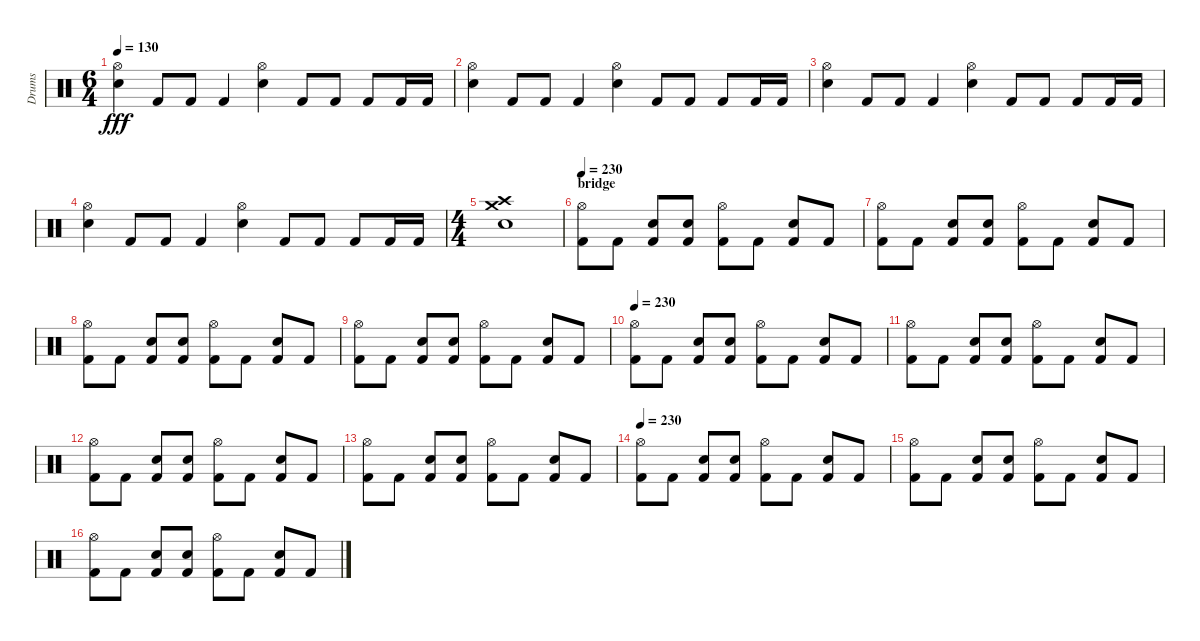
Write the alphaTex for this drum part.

\track ("Drums" "Drums") {instrument percussion}
\staff {score}
\articulation defaults
\ts (6 4)
\tempo 130
\clef neutral
\ks c
("Hi-Hat (open)" "Electric Snare (hit)").4{dy fff} "Kick (hit) 2".8 "Kick (hit) 2".8 "Kick (hit) 2".4 ("Electric Snare (hit)" "Hi-Hat (open)").4 "Kick (hit) 2".8 "Kick (hit) 2".8 "Kick (hit) 2".8 "Kick (hit) 2".16 "Kick (hit) 2".16 |
("Hi-Hat (open)" "Electric Snare (hit)").4 "Kick (hit) 2".8 "Kick (hit) 2".8 "Kick (hit) 2".4 ("Electric Snare (hit)" "Hi-Hat (open)").4 "Kick (hit) 2".8 "Kick (hit) 2".8 "Kick (hit) 2".8 "Kick (hit) 2".16 "Kick (hit) 2".16 |
("Hi-Hat (open)" "Electric Snare (hit)").4 "Kick (hit) 2".8 "Kick (hit) 2".8 "Kick (hit) 2".4 ("Electric Snare (hit)" "Hi-Hat (open)").4 "Kick (hit) 2".8 "Kick (hit) 2".8 "Kick (hit) 2".8 "Kick (hit) 2".16 "Kick (hit) 2".16 |
("Hi-Hat (open)" "Electric Snare (hit)").4 "Kick (hit) 2".8 "Kick (hit) 2".8 "Kick (hit) 2".4 ("Electric Snare (hit)" "Hi-Hat (open)").4 "Kick (hit) 2".8 "Kick (hit) 2".8 "Kick (hit) 2".8 "Kick (hit) 2".16 "Kick (hit) 2".16 |
\ts (4 4)
("Electric Snare (hit)" "Crash medium (hit)" "Crash high (hit)").1 |
\section ("" "bridge")
\tempo 230
("Hi-Hat (open)" "Kick (hit) 2").8 "Kick (hit) 2".8 ("Snare (hit) 2" "Kick (hit) 2").8 ("Snare (hit) 2" "Kick (hit) 2").8 ("Hi-Hat (open)" "Kick (hit) 2").8 "Kick (hit) 2".8 ("Snare (hit) 2" "Kick (hit) 2").8 "Kick (hit) 2".8 |
("Hi-Hat (open)" "Kick (hit) 2").8 "Kick (hit) 2".8 ("Snare (hit) 2" "Kick (hit) 2").8 ("Snare (hit) 2" "Kick (hit) 2").8 ("Hi-Hat (open)" "Kick (hit) 2").8 "Kick (hit) 2".8 ("Snare (hit) 2" "Kick (hit) 2").8 "Kick (hit) 2".8 |
("Hi-Hat (open)" "Kick (hit) 2").8 "Kick (hit) 2".8 ("Snare (hit) 2" "Kick (hit) 2").8 ("Snare (hit) 2" "Kick (hit) 2").8 ("Hi-Hat (open)" "Kick (hit) 2").8 "Kick (hit) 2".8 ("Snare (hit) 2" "Kick (hit) 2").8 "Kick (hit) 2".8 |
("Hi-Hat (open)" "Kick (hit) 2").8 "Kick (hit) 2".8 ("Snare (hit) 2" "Kick (hit) 2").8 ("Snare (hit) 2" "Kick (hit) 2").8 ("Hi-Hat (open)" "Kick (hit) 2").8 "Kick (hit) 2".8 ("Snare (hit) 2" "Kick (hit) 2").8 "Kick (hit) 2".8 |
\tempo 230
("Hi-Hat (open)" "Kick (hit) 2").8 "Kick (hit) 2".8 ("Snare (hit) 2" "Kick (hit) 2").8 ("Snare (hit) 2" "Kick (hit) 2").8 ("Hi-Hat (open)" "Kick (hit) 2").8 "Kick (hit) 2".8 ("Snare (hit) 2" "Kick (hit) 2").8 "Kick (hit) 2".8 |
("Hi-Hat (open)" "Kick (hit) 2").8 "Kick (hit) 2".8 ("Snare (hit) 2" "Kick (hit) 2").8 ("Snare (hit) 2" "Kick (hit) 2").8 ("Hi-Hat (open)" "Kick (hit) 2").8 "Kick (hit) 2".8 ("Snare (hit) 2" "Kick (hit) 2").8 "Kick (hit) 2".8 |
("Hi-Hat (open)" "Kick (hit) 2").8 "Kick (hit) 2".8 ("Snare (hit) 2" "Kick (hit) 2").8 ("Snare (hit) 2" "Kick (hit) 2").8 ("Hi-Hat (open)" "Kick (hit) 2").8 "Kick (hit) 2".8 ("Snare (hit) 2" "Kick (hit) 2").8 "Kick (hit) 2".8 |
("Hi-Hat (open)" "Kick (hit) 2").8 "Kick (hit) 2".8 ("Snare (hit) 2" "Kick (hit) 2").8 ("Snare (hit) 2" "Kick (hit) 2").8 ("Hi-Hat (open)" "Kick (hit) 2").8 "Kick (hit) 2".8 ("Snare (hit) 2" "Kick (hit) 2").8 "Kick (hit) 2".8 |
\tempo 230
("Hi-Hat (open)" "Kick (hit) 2").8 "Kick (hit) 2".8 ("Snare (hit) 2" "Kick (hit) 2").8 ("Snare (hit) 2" "Kick (hit) 2").8 ("Hi-Hat (open)" "Kick (hit) 2").8 "Kick (hit) 2".8 ("Snare (hit) 2" "Kick (hit) 2").8 "Kick (hit) 2".8 |
("Hi-Hat (open)" "Kick (hit) 2").8 "Kick (hit) 2".8 ("Snare (hit) 2" "Kick (hit) 2").8 ("Snare (hit) 2" "Kick (hit) 2").8 ("Hi-Hat (open)" "Kick (hit) 2").8 "Kick (hit) 2".8 ("Snare (hit) 2" "Kick (hit) 2").8 "Kick (hit) 2".8 |
("Hi-Hat (open)" "Kick (hit) 2").8 "Kick (hit) 2".8 ("Snare (hit) 2" "Kick (hit) 2").8 ("Snare (hit) 2" "Kick (hit) 2").8 ("Hi-Hat (open)" "Kick (hit) 2").8 "Kick (hit) 2".8 ("Snare (hit) 2" "Kick (hit) 2").8 "Kick (hit) 2".8
